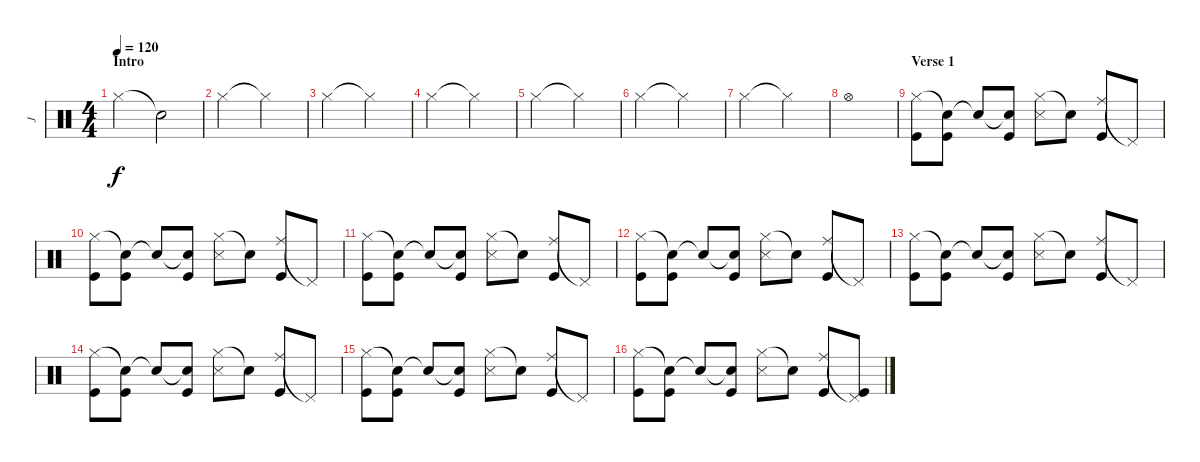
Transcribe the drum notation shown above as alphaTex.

\track ("J" "J") {instrument percussion}
\staff {score}
\articulation defaults
\ts (4 4)
\section ("" "Intro")
\tempo 120
\clef neutral
\ks c "Hi-Hat (closed)".2{dy f} "Snare (hit)"{t}.2
|
"Hi-Hat (closed)".2 "Hi-Hat (closed)"{t}.2 |
"Hi-Hat (closed)".2 "Hi-Hat (closed)"{t}.2 |
"Hi-Hat (closed)".2 "Hi-Hat (closed)"{t}.2 |
"Hi-Hat (closed)".2 "Hi-Hat (closed)"{t}.2 |
"Hi-Hat (closed)".2 "Hi-Hat (closed)"{t}.2 |
"Hi-Hat (closed)".2 "Hi-Hat (closed)"{t}.2 |
"Hi-Hat (open)".1 |
\section ("" "Verse 1")
("Hi-Hat (closed)" "Kick (hit)").8 ("Snare (hit)"{t} "Kick (hit)").8 "Snare (hit)"{t}.8 ("Snare (hit)"{t} "Kick (hit)").8 ("Hi-Hat (closed)" "Snare (side stick) 3").8 "Snare (hit)"{t}.8 ("Ride (middle)" "Kick (hit)").8 "Pedal Hi-Hat (hit)"{t}.8 |
("Hi-Hat (closed)" "Kick (hit)").8 ("Snare (hit)"{t} "Kick (hit)").8 "Snare (hit)"{t}.8 ("Snare (hit)"{t} "Kick (hit)").8 ("Hi-Hat (closed)" "Snare (side stick) 3").8 "Snare (hit)"{t}.8 ("Ride (middle)" "Kick (hit)").8 "Pedal Hi-Hat (hit)"{t}.8 |
("Hi-Hat (closed)" "Kick (hit)").8 ("Snare (hit)"{t} "Kick (hit)").8 "Snare (hit)"{t}.8 ("Snare (hit)"{t} "Kick (hit)").8 ("Hi-Hat (closed)" "Snare (side stick) 3").8 "Snare (hit)"{t}.8 ("Ride (middle)" "Kick (hit)").8 "Pedal Hi-Hat (hit)"{t}.8 |
("Hi-Hat (closed)" "Kick (hit)").8 ("Snare (hit)"{t} "Kick (hit)").8 "Snare (hit)"{t}.8 ("Snare (hit)"{t} "Kick (hit)").8 ("Hi-Hat (closed)" "Snare (side stick) 3").8 "Snare (hit)"{t}.8 ("Ride (middle)" "Kick (hit)").8 "Pedal Hi-Hat (hit)"{t}.8 |
("Hi-Hat (closed)" "Kick (hit)").8 ("Snare (hit)"{t} "Kick (hit)").8 "Snare (hit)"{t}.8 ("Snare (hit)"{t} "Kick (hit)").8 ("Hi-Hat (closed)" "Snare (side stick) 3").8 "Snare (hit)"{t}.8 ("Ride (middle)" "Kick (hit)").8 "Pedal Hi-Hat (hit)"{t}.8 |
("Hi-Hat (closed)" "Kick (hit)").8 ("Snare (hit)"{t} "Kick (hit)").8 "Snare (hit)"{t}.8 ("Snare (hit)"{t} "Kick (hit)").8 ("Hi-Hat (closed)" "Snare (side stick) 3").8 "Snare (hit)"{t}.8 ("Ride (middle)" "Kick (hit)").8 "Pedal Hi-Hat (hit)"{t}.8 |
("Hi-Hat (closed)" "Kick (hit)").8 ("Snare (hit)"{t} "Kick (hit)").8 "Snare (hit)"{t}.8 ("Snare (hit)"{t} "Kick (hit)").8 ("Hi-Hat (closed)" "Snare (side stick) 3").8 "Snare (hit)"{t}.8 ("Ride (middle)" "Kick (hit)").8 "Pedal Hi-Hat (hit)"{t}.8 |
("Hi-Hat (closed)" "Kick (hit)").8 ("Snare (hit)"{t} "Kick (hit)").8 "Snare (hit)"{t}.8 ("Snare (hit)"{t} "Kick (hit)").8 ("Hi-Hat (closed)" "Snare (side stick) 3").8 "Snare (hit)"{t}.8 ("Ride (middle)" "Kick (hit)").8 ("Pedal Hi-Hat (hit)"{t} "Kick (hit)").8
